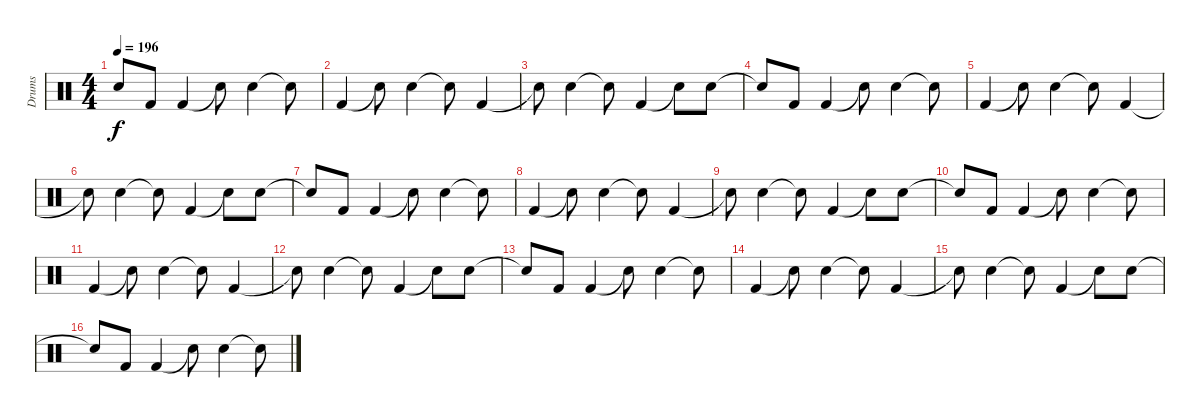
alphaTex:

\track ("Drums" "Drums") {instrument percussion}
\staff {score}
\articulation defaults
\ts (4 4)
\tempo 196
\clef neutral
\ks c "Snare (hit)"{t}.8{dy f} "Kick (hit) 2".8 "Kick (hit) 2".4 "Snare (hit)"{t}.8 "Electric Snare (hit)".4 "Snare (hit)"{t}.8
|
"Kick (hit) 2".4 "Snare (hit)"{t}.8 "Electric Snare (hit)".4 "Snare (hit)"{t}.8 "Kick (hit) 2".4 |
"Snare (hit)"{t}.8 "Electric Snare (hit)".4 "Snare (hit)"{t}.8 "Kick (hit) 2".4 "Snare (hit)"{t}.8 "Electric Snare (hit)".8 |
"Snare (hit)"{t}.8 "Kick (hit) 2".8 "Kick (hit) 2".4 "Snare (hit)"{t}.8 "Electric Snare (hit)".4 "Snare (hit)"{t}.8 |
"Kick (hit) 2".4 "Snare (hit)"{t}.8 "Electric Snare (hit)".4 "Snare (hit)"{t}.8 "Kick (hit) 2".4 |
"Snare (hit)"{t}.8 "Electric Snare (hit)".4 "Snare (hit)"{t}.8 "Kick (hit) 2".4 "Snare (hit)"{t}.8 "Electric Snare (hit)".8 |
"Snare (hit)"{t}.8 "Kick (hit) 2".8 "Kick (hit) 2".4 "Snare (hit)"{t}.8 "Electric Snare (hit)".4 "Snare (hit)"{t}.8 |
"Kick (hit) 2".4 "Snare (hit)"{t}.8 "Electric Snare (hit)".4 "Snare (hit)"{t}.8 "Kick (hit) 2".4 |
"Snare (hit)"{t}.8 "Electric Snare (hit)".4 "Snare (hit)"{t}.8 "Kick (hit) 2".4 "Snare (hit)"{t}.8 "Electric Snare (hit)".8 |
"Snare (hit)"{t}.8 "Kick (hit) 2".8 "Kick (hit) 2".4 "Snare (hit)"{t}.8 "Electric Snare (hit)".4 "Snare (hit)"{t}.8 |
"Kick (hit) 2".4 "Snare (hit)"{t}.8 "Electric Snare (hit)".4 "Snare (hit)"{t}.8 "Kick (hit) 2".4 |
"Snare (hit)"{t}.8 "Electric Snare (hit)".4 "Snare (hit)"{t}.8 "Kick (hit) 2".4 "Snare (hit)"{t}.8 "Electric Snare (hit)".8 |
"Snare (hit)"{t}.8 "Kick (hit) 2".8 "Kick (hit) 2".4 "Snare (hit)"{t}.8 "Electric Snare (hit)".4 "Snare (hit)"{t}.8 |
"Kick (hit) 2".4 "Snare (hit)"{t}.8 "Electric Snare (hit)".4 "Snare (hit)"{t}.8 "Kick (hit) 2".4 |
"Snare (hit)"{t}.8 "Electric Snare (hit)".4 "Snare (hit)"{t}.8 "Kick (hit) 2".4 "Snare (hit)"{t}.8 "Electric Snare (hit)".8 |
"Snare (hit)"{t}.8 "Kick (hit) 2".8 "Kick (hit) 2".4 "Snare (hit)"{t}.8 "Electric Snare (hit)".4 "Snare (hit)"{t}.8
